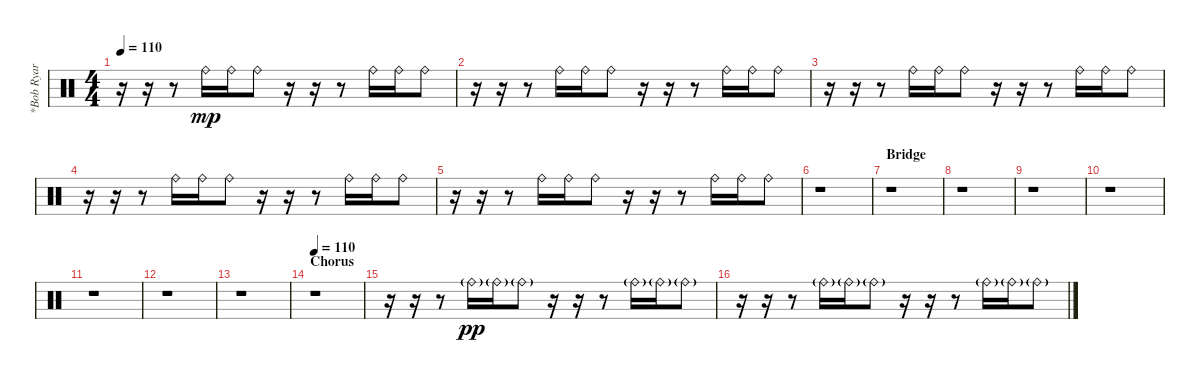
\track ("*Bob Ryar (Drums)" "*Bob Ryar ") {instrument percussion}
\staff {score}
\articulation defaults
\ts (4 4)
\tempo 110
\clef neutral
\ks c
r.16{dy mp} r.16 r.8 "Ride (bell)".16 "Ride (bell)".16 "Ride (bell)".8 r.16 r.16 r.8 "Ride (bell)".16 "Ride (bell)".16 "Ride (bell)".8 |
r.16 r.16 r.8 "Ride (bell)".16 "Ride (bell)".16 "Ride (bell)".8 r.16 r.16 r.8 "Ride (bell)".16 "Ride (bell)".16 "Ride (bell)".8 |
r.16 r.16 r.8 "Ride (bell)".16 "Ride (bell)".16 "Ride (bell)".8 r.16 r.16 r.8 "Ride (bell)".16 "Ride (bell)".16 "Ride (bell)".8 |
r.16 r.16 r.8 "Ride (bell)".16 "Ride (bell)".16 "Ride (bell)".8 r.16 r.16 r.8 "Ride (bell)".16 "Ride (bell)".16 "Ride (bell)".8 |
r.16 r.16 r.8 "Ride (bell)".16 "Ride (bell)".16 "Ride (bell)".8 r.16 r.16 r.8 "Ride (bell)".16 "Ride (bell)".16 "Ride (bell)".8 |
r.1 |
\section ("" "Bridge")
r.1 |
r.1 |
r.1 |
r.1 |
r.1 |
r.1 |
r.1 |
\section ("" "Chorus")
\tempo 110
r.1 |
r.16 r.16 r.8 "Ride (bell)"{g}.16{dy pp} "Ride (bell)"{g}.16 "Ride (bell)"{g}.8 r.16 r.16 r.8 "Ride (bell)"{g}.16 "Ride (bell)"{g}.16 "Ride (bell)"{g}.8 |
r.16 r.16 r.8 "Ride (bell)"{g}.16 "Ride (bell)"{g}.16 "Ride (bell)"{g}.8 r.16 r.16 r.8 "Ride (bell)"{g}.16 "Ride (bell)"{g}.16 "Ride (bell)"{g}.8
